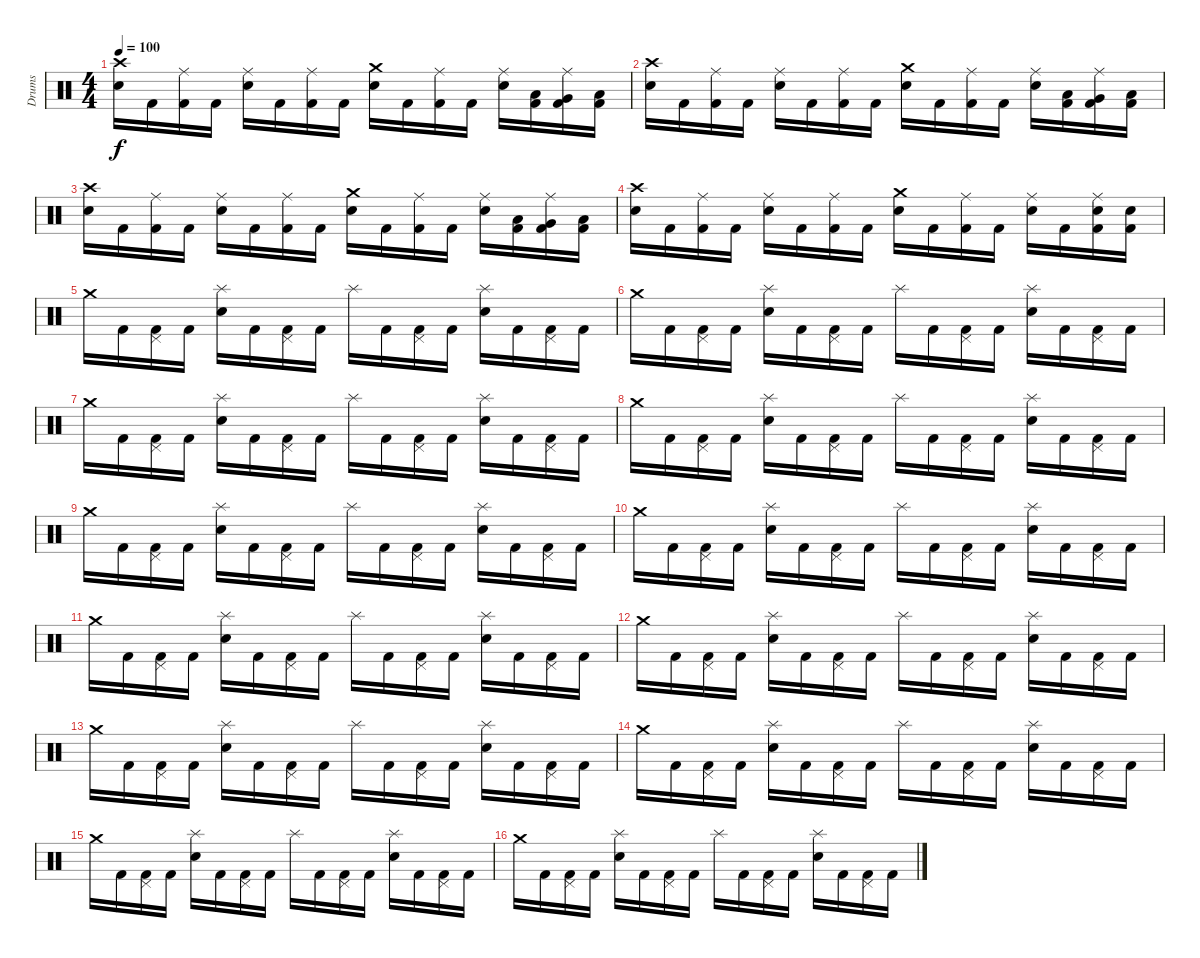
\track ("Drums" "Drums") {instrument percussion}
\staff {score}
\articulation defaults
\ts (4 4)
\tempo 100
\clef neutral
\ks c
("Crash high (hit)" "Electric Snare (hit)").16{dy f} "Kick (hit) 2".16 ("Ride (middle)" "Kick (hit) 2").16 "Kick (hit) 2".16 ("Ride (middle)" "Electric Snare (hit)").16 "Kick (hit) 2".16 ("Ride (middle)" "Kick (hit) 2").16 "Kick (hit) 2".16 ("Crash medium (hit)" "Electric Snare (hit)").16 "Kick (hit) 2".16 ("Ride (middle)" "Kick (hit) 2").16 "Kick (hit) 2".16 ("Ride (middle)" "Electric Snare (hit)").16 ("Low Tom (hit)" "Kick (hit) 2").16 ("Ride (middle)" "Very Low Tom (hit)" "Kick (hit) 2").16 ("Low Floor Tom (hit)" "Kick (hit) 2").16 |
("Crash high (hit)" "Electric Snare (hit)").16 "Kick (hit) 2".16 ("Ride (middle)" "Kick (hit) 2").16 "Kick (hit) 2".16 ("Ride (middle)" "Electric Snare (hit)").16 "Kick (hit) 2".16 ("Ride (middle)" "Kick (hit) 2").16 "Kick (hit) 2".16 ("Crash medium (hit)" "Electric Snare (hit)").16 "Kick (hit) 2".16 ("Ride (middle)" "Kick (hit) 2").16 "Kick (hit) 2".16 ("Ride (middle)" "Electric Snare (hit)").16 ("Low Tom (hit)" "Kick (hit) 2").16 ("Ride (middle)" "Very Low Tom (hit)" "Kick (hit) 2").16 ("Low Floor Tom (hit)" "Kick (hit) 2").16 |
("Crash high (hit)" "Electric Snare (hit)").16 "Kick (hit) 2".16 ("Ride (middle)" "Kick (hit) 2").16 "Kick (hit) 2".16 ("Ride (middle)" "Electric Snare (hit)").16 "Kick (hit) 2".16 ("Ride (middle)" "Kick (hit) 2").16 "Kick (hit) 2".16 ("Crash medium (hit)" "Electric Snare (hit)").16 "Kick (hit) 2".16 ("Ride (middle)" "Kick (hit) 2").16 "Kick (hit) 2".16 ("Ride (middle)" "Electric Snare (hit)").16 ("Low Tom (hit)" "Kick (hit) 2").16 ("Ride (middle)" "Very Low Tom (hit)" "Kick (hit) 2").16 ("Low Floor Tom (hit)" "Kick (hit) 2").16 |
("Crash high (hit)" "Electric Snare (hit)").16 "Kick (hit) 2".16 ("Ride (middle)" "Kick (hit) 2").16 "Kick (hit) 2".16 ("Ride (middle)" "Electric Snare (hit)").16 "Kick (hit) 2".16 ("Ride (middle)" "Kick (hit) 2").16 "Kick (hit) 2".16 ("Crash medium (hit)" "Electric Snare (hit)").16 "Kick (hit) 2".16 ("Ride (middle)" "Kick (hit) 2").16 "Kick (hit) 2".16 ("Ride (middle)" "Electric Snare (hit)").16 "Kick (hit) 2".16 ("Ride (middle)" "Electric Snare (hit)" "Kick (hit) 2").16 ("Electric Snare (hit)" "Kick (hit) 2").16 |
"Crash medium (hit)".16 "Kick (hit) 2".16 ("Pedal Hi-Hat (hit)" "Kick (hit) 2").16 "Kick (hit) 2".16 ("Splash (hit)" "Electric Snare (hit)").16 "Kick (hit) 2".16 ("Pedal Hi-Hat (hit)" "Kick (hit) 2").16 "Kick (hit) 2".16 "Splash (hit)".16 "Kick (hit) 2".16 ("Pedal Hi-Hat (hit)" "Kick (hit) 2").16 "Kick (hit) 2".16 ("Splash (hit)" "Electric Snare (hit)").16 "Kick (hit) 2".16 ("Pedal Hi-Hat (hit)" "Kick (hit) 2").16 "Kick (hit) 2".16 |
"Crash medium (hit)".16 "Kick (hit) 2".16 ("Pedal Hi-Hat (hit)" "Kick (hit) 2").16 "Kick (hit) 2".16 ("Splash (hit)" "Electric Snare (hit)").16 "Kick (hit) 2".16 ("Pedal Hi-Hat (hit)" "Kick (hit) 2").16 "Kick (hit) 2".16 "Splash (hit)".16 "Kick (hit) 2".16 ("Pedal Hi-Hat (hit)" "Kick (hit) 2").16 "Kick (hit) 2".16 ("Splash (hit)" "Electric Snare (hit)").16 "Kick (hit) 2".16 ("Pedal Hi-Hat (hit)" "Kick (hit) 2").16 "Kick (hit) 2".16 |
"Crash medium (hit)".16 "Kick (hit) 2".16 ("Pedal Hi-Hat (hit)" "Kick (hit) 2").16 "Kick (hit) 2".16 ("Splash (hit)" "Electric Snare (hit)").16 "Kick (hit) 2".16 ("Pedal Hi-Hat (hit)" "Kick (hit) 2").16 "Kick (hit) 2".16 "Splash (hit)".16 "Kick (hit) 2".16 ("Pedal Hi-Hat (hit)" "Kick (hit) 2").16 "Kick (hit) 2".16 ("Splash (hit)" "Electric Snare (hit)").16 "Kick (hit) 2".16 ("Pedal Hi-Hat (hit)" "Kick (hit) 2").16 "Kick (hit) 2".16 |
"Crash medium (hit)".16 "Kick (hit) 2".16 ("Pedal Hi-Hat (hit)" "Kick (hit) 2").16 "Kick (hit) 2".16 ("Splash (hit)" "Electric Snare (hit)").16 "Kick (hit) 2".16 ("Pedal Hi-Hat (hit)" "Kick (hit) 2").16 "Kick (hit) 2".16 "Splash (hit)".16 "Kick (hit) 2".16 ("Pedal Hi-Hat (hit)" "Kick (hit) 2").16 "Kick (hit) 2".16 ("Splash (hit)" "Electric Snare (hit)").16 "Kick (hit) 2".16 ("Pedal Hi-Hat (hit)" "Kick (hit) 2").16 "Kick (hit) 2".16 |
"Crash medium (hit)".16 "Kick (hit) 2".16 ("Pedal Hi-Hat (hit)" "Kick (hit) 2").16 "Kick (hit) 2".16 ("Splash (hit)" "Electric Snare (hit)").16 "Kick (hit) 2".16 ("Pedal Hi-Hat (hit)" "Kick (hit) 2").16 "Kick (hit) 2".16 "Splash (hit)".16 "Kick (hit) 2".16 ("Pedal Hi-Hat (hit)" "Kick (hit) 2").16 "Kick (hit) 2".16 ("Splash (hit)" "Electric Snare (hit)").16 "Kick (hit) 2".16 ("Pedal Hi-Hat (hit)" "Kick (hit) 2").16 "Kick (hit) 2".16 |
"Crash medium (hit)".16 "Kick (hit) 2".16 ("Pedal Hi-Hat (hit)" "Kick (hit) 2").16 "Kick (hit) 2".16 ("Splash (hit)" "Electric Snare (hit)").16 "Kick (hit) 2".16 ("Pedal Hi-Hat (hit)" "Kick (hit) 2").16 "Kick (hit) 2".16 "Splash (hit)".16 "Kick (hit) 2".16 ("Pedal Hi-Hat (hit)" "Kick (hit) 2").16 "Kick (hit) 2".16 ("Splash (hit)" "Electric Snare (hit)").16 "Kick (hit) 2".16 ("Pedal Hi-Hat (hit)" "Kick (hit) 2").16 "Kick (hit) 2".16 |
"Crash medium (hit)".16 "Kick (hit) 2".16 ("Pedal Hi-Hat (hit)" "Kick (hit) 2").16 "Kick (hit) 2".16 ("Splash (hit)" "Electric Snare (hit)").16 "Kick (hit) 2".16 ("Pedal Hi-Hat (hit)" "Kick (hit) 2").16 "Kick (hit) 2".16 "Splash (hit)".16 "Kick (hit) 2".16 ("Pedal Hi-Hat (hit)" "Kick (hit) 2").16 "Kick (hit) 2".16 ("Splash (hit)" "Electric Snare (hit)").16 "Kick (hit) 2".16 ("Pedal Hi-Hat (hit)" "Kick (hit) 2").16 "Kick (hit) 2".16 |
"Crash medium (hit)".16 "Kick (hit) 2".16 ("Pedal Hi-Hat (hit)" "Kick (hit) 2").16 "Kick (hit) 2".16 ("Splash (hit)" "Electric Snare (hit)").16 "Kick (hit) 2".16 ("Pedal Hi-Hat (hit)" "Kick (hit) 2").16 "Kick (hit) 2".16 "Splash (hit)".16 "Kick (hit) 2".16 ("Pedal Hi-Hat (hit)" "Kick (hit) 2").16 "Kick (hit) 2".16 ("Splash (hit)" "Electric Snare (hit)").16 "Kick (hit) 2".16 ("Pedal Hi-Hat (hit)" "Kick (hit) 2").16 "Kick (hit) 2".16 |
"Crash medium (hit)".16 "Kick (hit) 2".16 ("Pedal Hi-Hat (hit)" "Kick (hit) 2").16 "Kick (hit) 2".16 ("Splash (hit)" "Electric Snare (hit)").16 "Kick (hit) 2".16 ("Pedal Hi-Hat (hit)" "Kick (hit) 2").16 "Kick (hit) 2".16 "Splash (hit)".16 "Kick (hit) 2".16 ("Pedal Hi-Hat (hit)" "Kick (hit) 2").16 "Kick (hit) 2".16 ("Splash (hit)" "Electric Snare (hit)").16 "Kick (hit) 2".16 ("Pedal Hi-Hat (hit)" "Kick (hit) 2").16 "Kick (hit) 2".16 |
"Crash medium (hit)".16 "Kick (hit) 2".16 ("Pedal Hi-Hat (hit)" "Kick (hit) 2").16 "Kick (hit) 2".16 ("Splash (hit)" "Electric Snare (hit)").16 "Kick (hit) 2".16 ("Pedal Hi-Hat (hit)" "Kick (hit) 2").16 "Kick (hit) 2".16 "Splash (hit)".16 "Kick (hit) 2".16 ("Pedal Hi-Hat (hit)" "Kick (hit) 2").16 "Kick (hit) 2".16 ("Splash (hit)" "Electric Snare (hit)").16 "Kick (hit) 2".16 ("Pedal Hi-Hat (hit)" "Kick (hit) 2").16 "Kick (hit) 2".16 |
"Crash medium (hit)".16 "Kick (hit) 2".16 ("Pedal Hi-Hat (hit)" "Kick (hit) 2").16 "Kick (hit) 2".16 ("Splash (hit)" "Electric Snare (hit)").16 "Kick (hit) 2".16 ("Pedal Hi-Hat (hit)" "Kick (hit) 2").16 "Kick (hit) 2".16 "Splash (hit)".16 "Kick (hit) 2".16 ("Pedal Hi-Hat (hit)" "Kick (hit) 2").16 "Kick (hit) 2".16 ("Splash (hit)" "Electric Snare (hit)").16 "Kick (hit) 2".16 ("Pedal Hi-Hat (hit)" "Kick (hit) 2").16 "Kick (hit) 2".16 |
"Crash medium (hit)".16 "Kick (hit) 2".16 ("Pedal Hi-Hat (hit)" "Kick (hit) 2").16 "Kick (hit) 2".16 ("Splash (hit)" "Electric Snare (hit)").16 "Kick (hit) 2".16 ("Pedal Hi-Hat (hit)" "Kick (hit) 2").16 "Kick (hit) 2".16 "Splash (hit)".16 "Kick (hit) 2".16 ("Pedal Hi-Hat (hit)" "Kick (hit) 2").16 "Kick (hit) 2".16 ("Splash (hit)" "Electric Snare (hit)").16 "Kick (hit) 2".16 ("Pedal Hi-Hat (hit)" "Kick (hit) 2").16 "Kick (hit) 2".16
